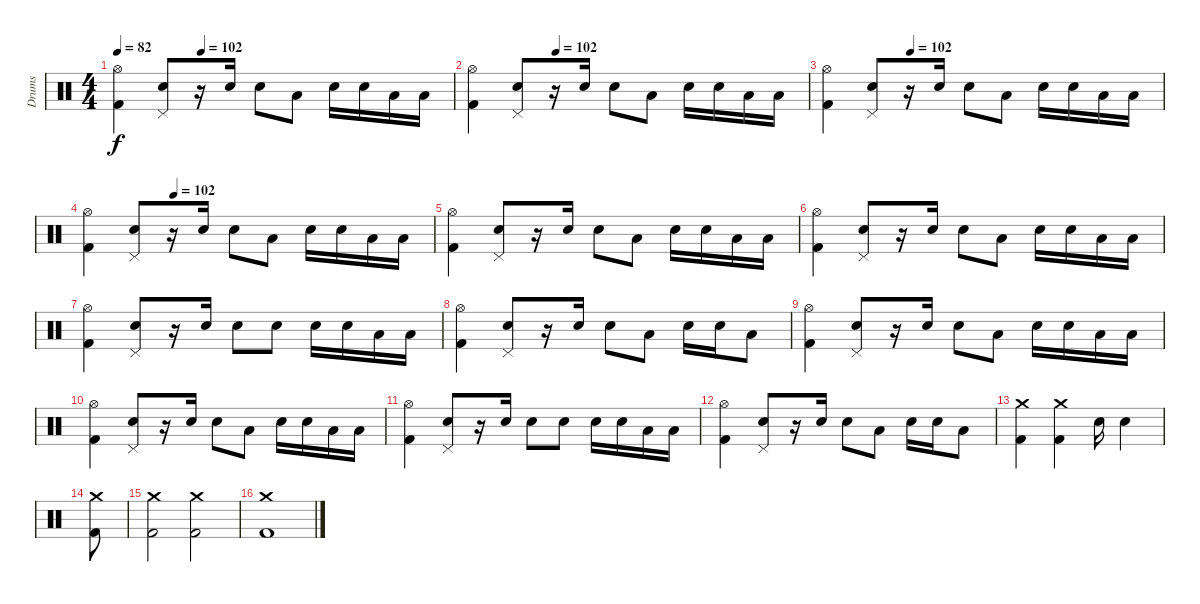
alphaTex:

\track ("Drums" "Drums") {instrument percussion}
\staff {score}
\articulation defaults
\ts (4 4)
\tempo 82
\tempo (102 0.25)
\clef neutral
\ks c
("Hi-Hat (open)" "Kick (hit) 2").4{dy f} ("Pedal Hi-Hat (hit)" "Electric Snare (hit)").8 r.16 "Electric Snare (hit)".16 "Electric Snare (hit)".8 "Low Tom (hit)".8 "Electric Snare (hit)".16 "Electric Snare (hit)".16 "Low Tom (hit)".16 "Low Tom (hit)".16 |
\tempo (102 0.25)
("Hi-Hat (open)" "Kick (hit) 2").4 ("Pedal Hi-Hat (hit)" "Electric Snare (hit)").8 r.16 "Electric Snare (hit)".16 "Electric Snare (hit)".8 "Low Tom (hit)".8 "Electric Snare (hit)".16 "Electric Snare (hit)".16 "Low Tom (hit)".16 "Low Tom (hit)".16 |
\tempo (102 0.25)
("Hi-Hat (open)" "Kick (hit) 2").4 ("Pedal Hi-Hat (hit)" "Electric Snare (hit)").8 r.16 "Electric Snare (hit)".16 "Electric Snare (hit)".8 "Low Tom (hit)".8 "Electric Snare (hit)".16 "Electric Snare (hit)".16 "Low Tom (hit)".16 "Low Tom (hit)".16 |
\tempo (102 0.25)
("Hi-Hat (open)" "Kick (hit) 2").4 ("Pedal Hi-Hat (hit)" "Electric Snare (hit)").8 r.16 "Electric Snare (hit)".16 "Electric Snare (hit)".8 "Low Tom (hit)".8 "Electric Snare (hit)".16 "Electric Snare (hit)".16 "Low Tom (hit)".16 "Low Tom (hit)".16 |
("Hi-Hat (open)" "Kick (hit) 2").4 ("Pedal Hi-Hat (hit)" "Electric Snare (hit)").8 r.16 "Electric Snare (hit)".16 "Electric Snare (hit)".8 "Low Tom (hit)".8 "Electric Snare (hit)".16 "Electric Snare (hit)".16 "Low Tom (hit)".16 "Low Tom (hit)".16 |
("Hi-Hat (open)" "Kick (hit) 2").4 ("Pedal Hi-Hat (hit)" "Electric Snare (hit)").8 r.16 "Electric Snare (hit)".16 "Electric Snare (hit)".8 "Low Tom (hit)".8 "Electric Snare (hit)".16 "Electric Snare (hit)".16 "Low Tom (hit)".16 "Low Tom (hit)".16 |
("Hi-Hat (open)" "Kick (hit) 2").4 ("Pedal Hi-Hat (hit)" "Electric Snare (hit)").8 r.16 "Electric Snare (hit)".16 "Electric Snare (hit)".8 "Electric Snare (hit)".8 "Electric Snare (hit)".16 "Electric Snare (hit)".16 "Low Tom (hit)".16 "Low Tom (hit)".16 |
("Hi-Hat (open)" "Kick (hit) 2").4 ("Pedal Hi-Hat (hit)" "Electric Snare (hit)").8 r.16 "Electric Snare (hit)".16 "Electric Snare (hit)".8 "Low Tom (hit)".8 "Electric Snare (hit)".16 "Electric Snare (hit)".16 "Low Tom (hit)".8 |
("Hi-Hat (open)" "Kick (hit) 2").4 ("Pedal Hi-Hat (hit)" "Electric Snare (hit)").8 r.16 "Electric Snare (hit)".16 "Electric Snare (hit)".8 "Low Tom (hit)".8 "Electric Snare (hit)".16 "Electric Snare (hit)".16 "Low Tom (hit)".16 "Low Tom (hit)".16 |
("Hi-Hat (open)" "Kick (hit) 2").4 ("Pedal Hi-Hat (hit)" "Electric Snare (hit)").8 r.16 "Electric Snare (hit)".16 "Electric Snare (hit)".8 "Low Tom (hit)".8 "Electric Snare (hit)".16 "Electric Snare (hit)".16 "Low Tom (hit)".16 "Low Tom (hit)".16 |
("Hi-Hat (open)" "Kick (hit) 2").4 ("Pedal Hi-Hat (hit)" "Electric Snare (hit)").8 r.16 "Electric Snare (hit)".16 "Electric Snare (hit)".8 "Electric Snare (hit)".8 "Electric Snare (hit)".16 "Electric Snare (hit)".16 "Low Tom (hit)".16 "Low Tom (hit)".16 |
("Hi-Hat (open)" "Kick (hit) 2").4 ("Pedal Hi-Hat (hit)" "Electric Snare (hit)").8 r.16 "Electric Snare (hit)".16 "Electric Snare (hit)".8 "Low Tom (hit)".8 "Electric Snare (hit)".16 "Electric Snare (hit)".16 "Low Tom (hit)".8 |
("Crash medium (hit)" "Kick (hit) 2").4 ("Crash medium (hit)" "Kick (hit) 2").4 "Electric Snare (hit)".16 "Electric Snare (hit)".4 |
("Crash medium (hit)" "Kick (hit) 2").8 |
("Crash medium (hit)" "Kick (hit) 2").2 ("Crash medium (hit)" "Kick (hit) 2").2 |
("Crash medium (hit)" "Kick (hit) 2").1
